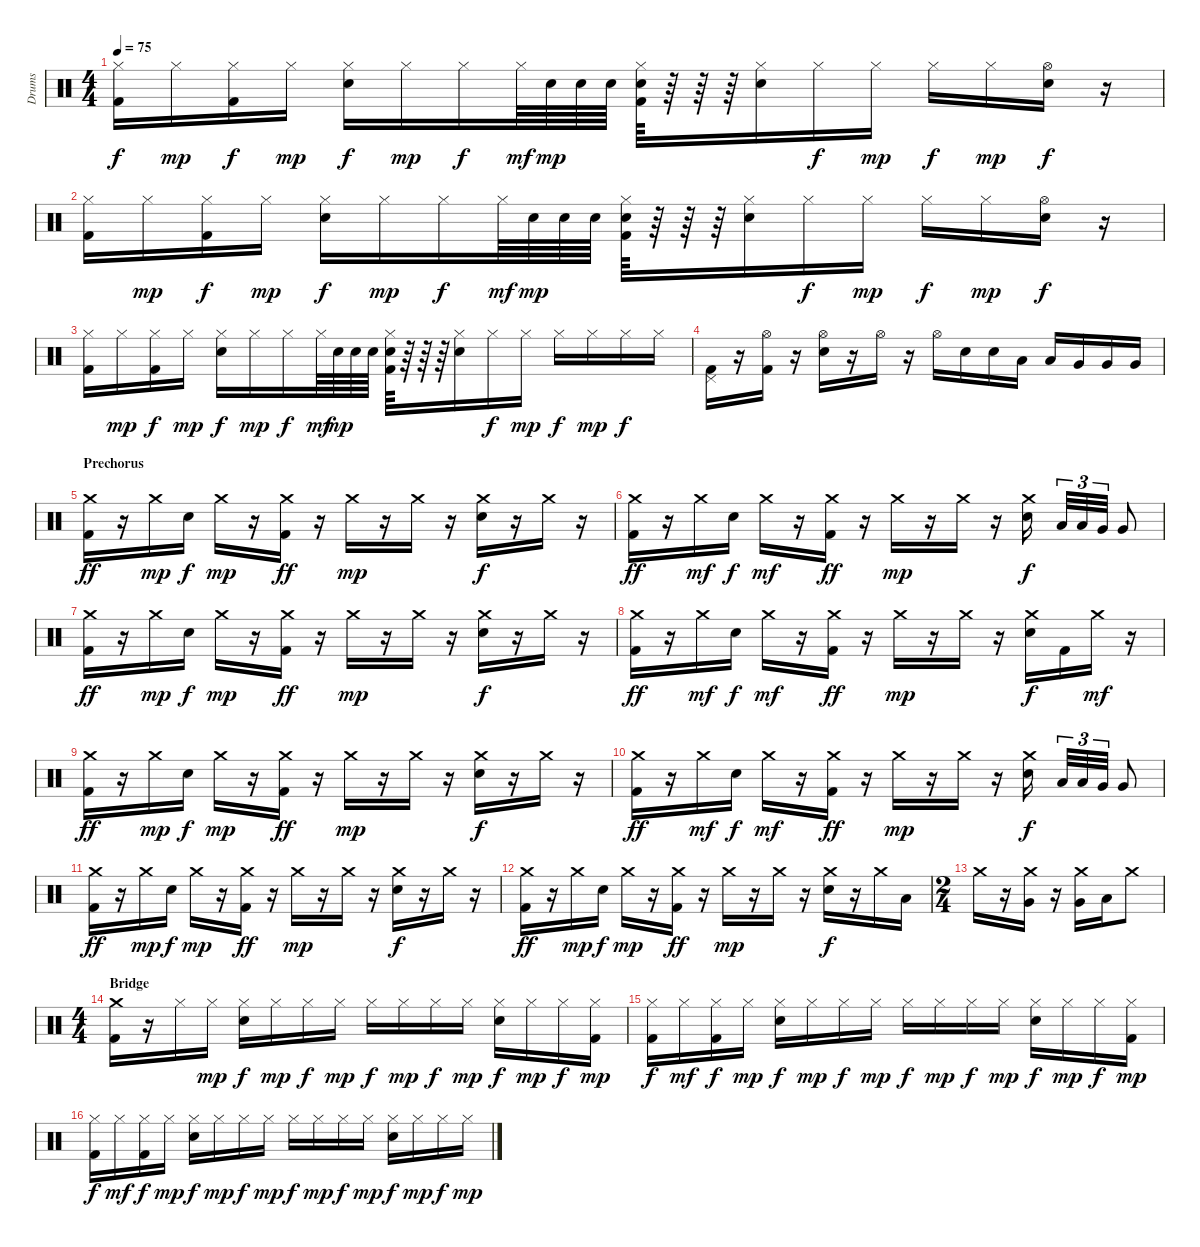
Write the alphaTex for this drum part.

\track ("Drums" "Drums") {instrument percussion}
\staff {score}
\articulation defaults
\ts (4 4)
\tempo 75
\clef neutral
\ks c
("Hi-Hat (closed)" "Kick (hit) 2").16{dy f} "Hi-Hat (closed)".16{dy mp} ("Hi-Hat (closed)" "Kick (hit) 2").16{dy f} "Hi-Hat (closed)".16{dy mp} ("Hi-Hat (closed)" "Snare (hit) 2").16{dy f} "Hi-Hat (closed)".16{dy mp} "Hi-Hat (closed)".16{dy f} "Hi-Hat (closed)".64{dy mf} "Snare (hit) 2".64{dy mp} "Snare (hit) 2".64 "Snare (hit) 2".64 ("Hi-Hat (closed)" "Snare (hit) 2" "Kick (hit) 2").64 r.64 r.64 r.64 ("Hi-Hat (closed)" "Snare (hit) 2").16 "Hi-Hat (closed)".16{dy f} "Hi-Hat (closed)".16{dy mp} "Hi-Hat (closed)".16{dy f} "Hi-Hat (closed)".16{dy mp} ("Hi-Hat (open)" "Snare (hit) 2").16{dy f} r.16 |
("Hi-Hat (closed)" "Kick (hit) 2").16 "Hi-Hat (closed)".16{dy mp} ("Hi-Hat (closed)" "Kick (hit) 2").16{dy f} "Hi-Hat (closed)".16{dy mp} ("Hi-Hat (closed)" "Snare (hit) 2").16{dy f} "Hi-Hat (closed)".16{dy mp} "Hi-Hat (closed)".16{dy f} "Hi-Hat (closed)".64{dy mf} "Snare (hit) 2".64{dy mp} "Snare (hit) 2".64 "Snare (hit) 2".64 ("Hi-Hat (closed)" "Snare (hit) 2" "Kick (hit) 2").64 r.64 r.64 r.64 ("Hi-Hat (closed)" "Snare (hit) 2").16 "Hi-Hat (closed)".16{dy f} "Hi-Hat (closed)".16{dy mp} "Hi-Hat (closed)".16{dy f} "Hi-Hat (closed)".16{dy mp} ("Hi-Hat (open)" "Snare (hit) 2").16{dy f} r.16 |
("Hi-Hat (closed)" "Kick (hit) 2").16 "Hi-Hat (closed)".16{dy mp} ("Hi-Hat (closed)" "Kick (hit) 2").16{dy f} "Hi-Hat (closed)".16{dy mp} ("Hi-Hat (closed)" "Snare (hit) 2").16{dy f} "Hi-Hat (closed)".16{dy mp} "Hi-Hat (closed)".16{dy f} "Hi-Hat (closed)".64{dy mf} "Snare (hit) 2".64{dy mp} "Snare (hit) 2".64 "Snare (hit) 2".64 ("Hi-Hat (closed)" "Snare (hit) 2" "Kick (hit) 2").64 r.64 r.64 r.64 ("Hi-Hat (closed)" "Snare (hit) 2").16 "Hi-Hat (closed)".16{dy f} "Hi-Hat (closed)".16{dy mp} "Hi-Hat (closed)".16{dy f} "Hi-Hat (closed)".16{dy mp} "Hi-Hat (closed)".16{dy f} "Hi-Hat (closed)".16 |
("Pedal Hi-Hat (hit)" "Kick (hit) 2").16 r.16 ("Hi-Hat (open)" "Kick (hit) 2").16 r.16 ("Hi-Hat (open)" "Snare (hit) 2").16 r.16 "Hi-Hat (open)".16 r.16 "Hi-Hat (open)".16 "Snare (hit) 2".16 "Snare (hit) 2".16 "Low Tom (hit)".16 "Low Tom (hit)".16 "Very Low Tom (hit)".16 "Very Low Tom (hit)".16 "Very Low Tom (hit)".16 |
\section ("" "Prechorus")
("Crash medium (hit)" "Kick (hit) 2").16{dy ff} r.16 "Crash medium (hit)".16{dy mp} "Snare (hit) 2".16{dy f} "Crash medium (hit)".16{dy mp} r.16 ("Crash medium (hit)" "Kick (hit) 2").16{dy ff} r.16 "Crash medium (hit)".16{dy mp} r.16 "Crash medium (hit)".16 r.16 ("Crash medium (hit)" "Snare (hit) 2").16{dy f} r.16 "Crash medium (hit)".16 r.16 |
("Crash medium (hit)" "Kick (hit) 2").16{dy ff} r.16 "Crash medium (hit)".16{dy mf} "Snare (hit) 2".16{dy f} "Crash medium (hit)".16{dy mf} r.16 ("Crash medium (hit)" "Kick (hit) 2").16{dy ff} r.16 "Crash medium (hit)".16{dy mp} r.16 "Crash medium (hit)".16 r.16 ("Crash medium (hit)" "Snare (hit) 2").16{dy f} "Low Tom (hit)".32{tu (3 2)} "Low Tom (hit)".32{tu (3 2)} "Very Low Tom (hit)".32{tu (3 2)} "Very Low Tom (hit)".8 |
("Crash medium (hit)" "Kick (hit) 2").16{dy ff} r.16 "Crash medium (hit)".16{dy mp} "Snare (hit) 2".16{dy f} "Crash medium (hit)".16{dy mp} r.16 ("Crash medium (hit)" "Kick (hit) 2").16{dy ff} r.16 "Crash medium (hit)".16{dy mp} r.16 "Crash medium (hit)".16 r.16 ("Crash medium (hit)" "Snare (hit) 2").16{dy f} r.16 "Crash medium (hit)".16 r.16 |
("Crash medium (hit)" "Kick (hit) 2").16{dy ff} r.16 "Crash medium (hit)".16{dy mf} "Snare (hit) 2".16{dy f} "Crash medium (hit)".16{dy mf} r.16 ("Crash medium (hit)" "Kick (hit) 2").16{dy ff} r.16 "Crash medium (hit)".16{dy mp} r.16 "Crash medium (hit)".16 r.16 ("Crash medium (hit)" "Snare (hit) 2").16{dy f} "Kick (hit) 2".16 "Crash medium (hit)".16{dy mf} r.16 |
("Crash medium (hit)" "Kick (hit) 2").16{dy ff} r.16 "Crash medium (hit)".16{dy mp} "Snare (hit) 2".16{dy f} "Crash medium (hit)".16{dy mp} r.16 ("Crash medium (hit)" "Kick (hit) 2").16{dy ff} r.16 "Crash medium (hit)".16{dy mp} r.16 "Crash medium (hit)".16 r.16 ("Crash medium (hit)" "Snare (hit) 2").16{dy f} r.16 "Crash medium (hit)".16 r.16 |
("Crash medium (hit)" "Kick (hit) 2").16{dy ff} r.16 "Crash medium (hit)".16{dy mf} "Snare (hit) 2".16{dy f} "Crash medium (hit)".16{dy mf} r.16 ("Crash medium (hit)" "Kick (hit) 2").16{dy ff} r.16 "Crash medium (hit)".16{dy mp} r.16 "Crash medium (hit)".16 r.16 ("Crash medium (hit)" "Snare (hit) 2").16{dy f} "Low Tom (hit)".32{tu (3 2)} "Low Tom (hit)".32{tu (3 2)} "Very Low Tom (hit)".32{tu (3 2)} "Very Low Tom (hit)".8 |
("Crash medium (hit)" "Kick (hit) 2").16{dy ff} r.16 "Crash medium (hit)".16{dy mp} "Snare (hit) 2".16{dy f} "Crash medium (hit)".16{dy mp} r.16 ("Crash medium (hit)" "Kick (hit) 2").16{dy ff} r.16 "Crash medium (hit)".16{dy mp} r.16 "Crash medium (hit)".16 r.16 ("Crash medium (hit)" "Snare (hit) 2").16{dy f} r.16 "Crash medium (hit)".16 r.16 |
("Crash medium (hit)" "Kick (hit) 2").16{dy ff} r.16 "Crash medium (hit)".16{dy mp} "Snare (hit) 2".16{dy f} "Crash medium (hit)".16{dy mp} r.16 ("Crash medium (hit)" "Kick (hit) 2").16{dy ff} r.16 "Crash medium (hit)".16{dy mp} r.16 "Crash medium (hit)".16 r.16 ("Crash medium (hit)" "Snare (hit) 2").16{dy f} r.16 "Crash medium (hit)".16 "Low Tom (hit)".16 |
\ts (2 4)
"Crash medium (hit)".16 r.16 ("Crash medium (hit)" "Very Low Tom (hit)").16 r.16 ("Crash medium (hit)" "Very Low Tom (hit)").16 "Low Floor Tom (hit)".16 "Crash medium (hit)".8 |
\ts (4 4)
\section ("" "Bridge")
("Crash medium (hit)" "Kick (hit) 2").16 r.16 "Hi-Hat (closed)".16 "Hi-Hat (closed)".16{dy mp} ("Hi-Hat (closed)" "Snare (hit) 2").16{dy f} "Hi-Hat (closed)".16{dy mp} "Hi-Hat (closed)".16{dy f} "Hi-Hat (closed)".16{dy mp} "Hi-Hat (closed)".16{dy f} "Hi-Hat (closed)".16{dy mp} "Hi-Hat (closed)".16{dy f} "Hi-Hat (closed)".16{dy mp} ("Hi-Hat (closed)" "Snare (hit) 2").16{dy f} "Hi-Hat (closed)".16{dy mp} "Hi-Hat (closed)".16{dy f} ("Hi-Hat (closed)" "Kick (hit) 2").16{dy mp} |
("Hi-Hat (closed)" "Kick (hit) 2").16{dy f} "Hi-Hat (closed)".16{dy mf} ("Hi-Hat (closed)" "Kick (hit) 2").16{dy f} "Hi-Hat (closed)".16{dy mp} ("Hi-Hat (closed)" "Snare (hit) 2").16{dy f} "Hi-Hat (closed)".16{dy mp} "Hi-Hat (closed)".16{dy f} "Hi-Hat (closed)".16{dy mp} "Hi-Hat (closed)".16{dy f} "Hi-Hat (closed)".16{dy mp} "Hi-Hat (closed)".16{dy f} "Hi-Hat (closed)".16{dy mp} ("Hi-Hat (closed)" "Snare (hit) 2").16{dy f} "Hi-Hat (closed)".16{dy mp} "Hi-Hat (closed)".16{dy f} ("Hi-Hat (closed)" "Kick (hit) 2").16{dy mp} |
("Hi-Hat (closed)" "Kick (hit) 2").16{dy f} "Hi-Hat (closed)".16{dy mf} ("Hi-Hat (closed)" "Kick (hit) 2").16{dy f} "Hi-Hat (closed)".16{dy mp} ("Hi-Hat (closed)" "Snare (hit) 2").16{dy f} "Hi-Hat (closed)".16{dy mp} "Hi-Hat (closed)".16{dy f} "Hi-Hat (closed)".16{dy mp} "Hi-Hat (closed)".16{dy f} "Hi-Hat (closed)".16{dy mp} "Hi-Hat (closed)".16{dy f} "Hi-Hat (closed)".16{dy mp} ("Hi-Hat (closed)" "Snare (hit) 2").16{dy f} "Hi-Hat (closed)".16{dy mp} "Hi-Hat (closed)".16{dy f} "Hi-Hat (closed)".16{dy mp}
